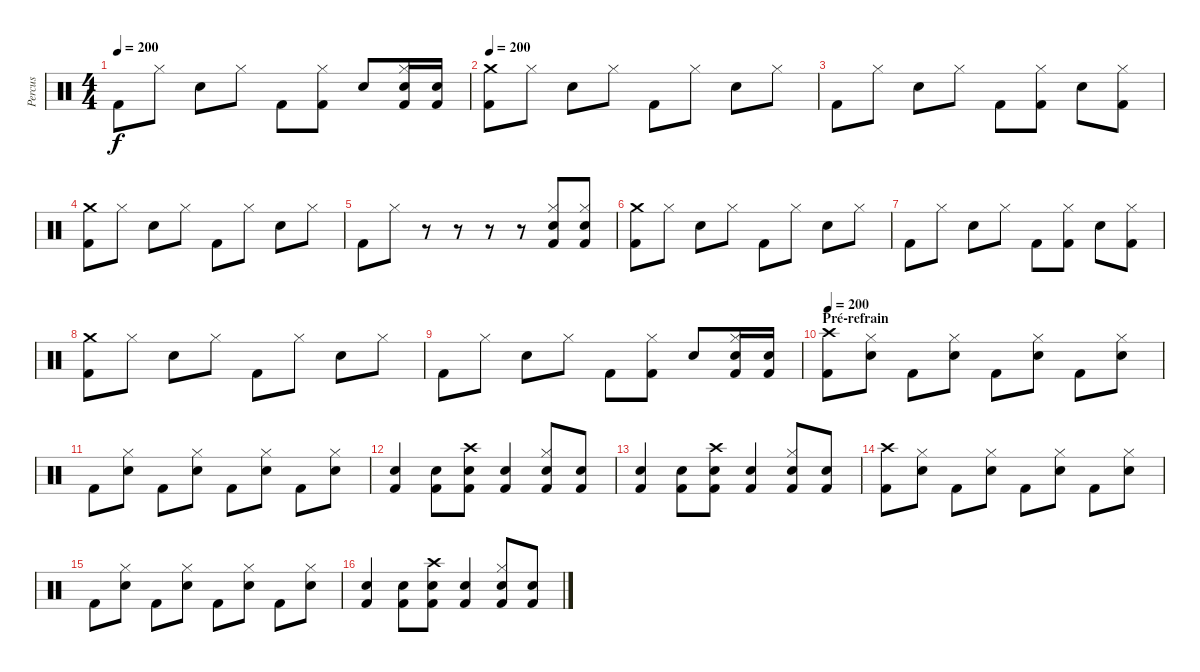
\track ("Percus" "Percus") {instrument percussion}
\staff {score}
\articulation defaults
\ts (4 4)
\tempo 200
\clef neutral
\ks c "Kick (hit) 2".8{dy f} "Hi-Hat (closed)".8 "Snare (hit) 2".8 "Hi-Hat (closed)".8 "Kick (hit) 2".8
("Hi-Hat (closed)" "Kick (hit) 2").8 "Snare (hit) 2".8 ("Hi-Hat (closed)" "Snare (hit) 2" "Kick (hit) 2").16 ("Snare (hit) 2" "Kick (hit) 2").16 |
\tempo 200
("Crash medium (hit)" "Kick (hit) 2").8 "Hi-Hat (closed)".8 "Snare (hit) 2".8 "Hi-Hat (closed)".8 "Kick (hit) 2".8 "Hi-Hat (closed)".8 "Snare (hit) 2".8 "Hi-Hat (closed)".8 |
"Kick (hit) 2".8 "Hi-Hat (closed)".8 "Snare (hit) 2".8 "Hi-Hat (closed)".8 "Kick (hit) 2".8 ("Hi-Hat (closed)" "Kick (hit) 2").8 "Snare (hit) 2".8 ("Hi-Hat (closed)" "Kick (hit) 2").8 |
("Crash medium (hit)" "Kick (hit) 2").8 "Hi-Hat (closed)".8 "Snare (hit) 2".8 "Hi-Hat (closed)".8 "Kick (hit) 2".8 "Hi-Hat (closed)".8 "Snare (hit) 2".8 "Hi-Hat (closed)".8 |
"Kick (hit) 2".8 "Hi-Hat (closed)".8 r.8 r.8 r.8 r.8 ("Hi-Hat (closed)" "Snare (hit) 2" "Kick (hit) 2").8 ("Hi-Hat (closed)" "Snare (hit) 2" "Kick (hit) 2").8 |
("Crash medium (hit)" "Kick (hit) 2").8 "Hi-Hat (closed)".8 "Snare (hit) 2".8 "Hi-Hat (closed)".8 "Kick (hit) 2".8 "Hi-Hat (closed)".8 "Snare (hit) 2".8 "Hi-Hat (closed)".8 |
"Kick (hit) 2".8 "Hi-Hat (closed)".8 "Snare (hit) 2".8 "Hi-Hat (closed)".8 "Kick (hit) 2".8 ("Hi-Hat (closed)" "Kick (hit) 2").8 "Snare (hit) 2".8 ("Hi-Hat (closed)" "Kick (hit) 2").8 |
("Crash medium (hit)" "Kick (hit) 2").8 "Hi-Hat (closed)".8 "Snare (hit) 2".8 "Hi-Hat (closed)".8 "Kick (hit) 2".8 "Hi-Hat (closed)".8 "Snare (hit) 2".8 "Hi-Hat (closed)".8 |
"Kick (hit) 2".8 "Hi-Hat (closed)".8 "Snare (hit) 2".8 "Hi-Hat (closed)".8 "Kick (hit) 2".8 ("Hi-Hat (closed)" "Kick (hit) 2").8 "Snare (hit) 2".8 ("Hi-Hat (closed)" "Snare (hit) 2" "Kick (hit) 2").16 ("Snare (hit) 2" "Kick (hit) 2").16 |
\section ("" "Pré-refrain")
\tempo 200
("Crash high (hit)" "Kick (hit) 2").8 ("Hi-Hat (closed)" "Snare (hit) 2").8 "Kick (hit) 2".8 ("Hi-Hat (closed)" "Snare (hit) 2").8 "Kick (hit) 2".8 ("Hi-Hat (closed)" "Snare (hit) 2").8 "Kick (hit) 2".8 ("Hi-Hat (closed)" "Snare (hit) 2").8 |
"Kick (hit) 2".8 ("Hi-Hat (closed)" "Snare (hit) 2").8 "Kick (hit) 2".8 ("Hi-Hat (closed)" "Snare (hit) 2").8 "Kick (hit) 2".8 ("Hi-Hat (closed)" "Snare (hit) 2").8 "Kick (hit) 2".8 ("Hi-Hat (closed)" "Snare (hit) 2").8 |
("Snare (hit) 2" "Kick (hit) 2").4 ("Snare (hit) 2" "Kick (hit) 2").8 ("Crash high (hit)" "Snare (hit) 2" "Kick (hit) 2").8 ("Snare (hit) 2" "Kick (hit) 2").4 ("Hi-Hat (closed)" "Snare (hit) 2" "Kick (hit) 2").8 ("Snare (hit) 2" "Kick (hit) 2").8 |
("Snare (hit) 2" "Kick (hit) 2").4 ("Snare (hit) 2" "Kick (hit) 2").8 ("Crash high (hit)" "Snare (hit) 2" "Kick (hit) 2").8 ("Snare (hit) 2" "Kick (hit) 2").4 ("Hi-Hat (closed)" "Snare (hit) 2" "Kick (hit) 2").8 ("Snare (hit) 2" "Kick (hit) 2").8 |
("Crash high (hit)" "Kick (hit) 2").8 ("Hi-Hat (closed)" "Snare (hit) 2").8 "Kick (hit) 2".8 ("Hi-Hat (closed)" "Snare (hit) 2").8 "Kick (hit) 2".8 ("Hi-Hat (closed)" "Snare (hit) 2").8 "Kick (hit) 2".8 ("Hi-Hat (closed)" "Snare (hit) 2").8 |
"Kick (hit) 2".8 ("Hi-Hat (closed)" "Snare (hit) 2").8 "Kick (hit) 2".8 ("Hi-Hat (closed)" "Snare (hit) 2").8 "Kick (hit) 2".8 ("Hi-Hat (closed)" "Snare (hit) 2").8 "Kick (hit) 2".8 ("Hi-Hat (closed)" "Snare (hit) 2").8 |
("Snare (hit) 2" "Kick (hit) 2").4 ("Snare (hit) 2" "Kick (hit) 2").8 ("Crash high (hit)" "Snare (hit) 2" "Kick (hit) 2").8 ("Snare (hit) 2" "Kick (hit) 2").4 ("Hi-Hat (closed)" "Snare (hit) 2" "Kick (hit) 2").8 ("Snare (hit) 2" "Kick (hit) 2").8
